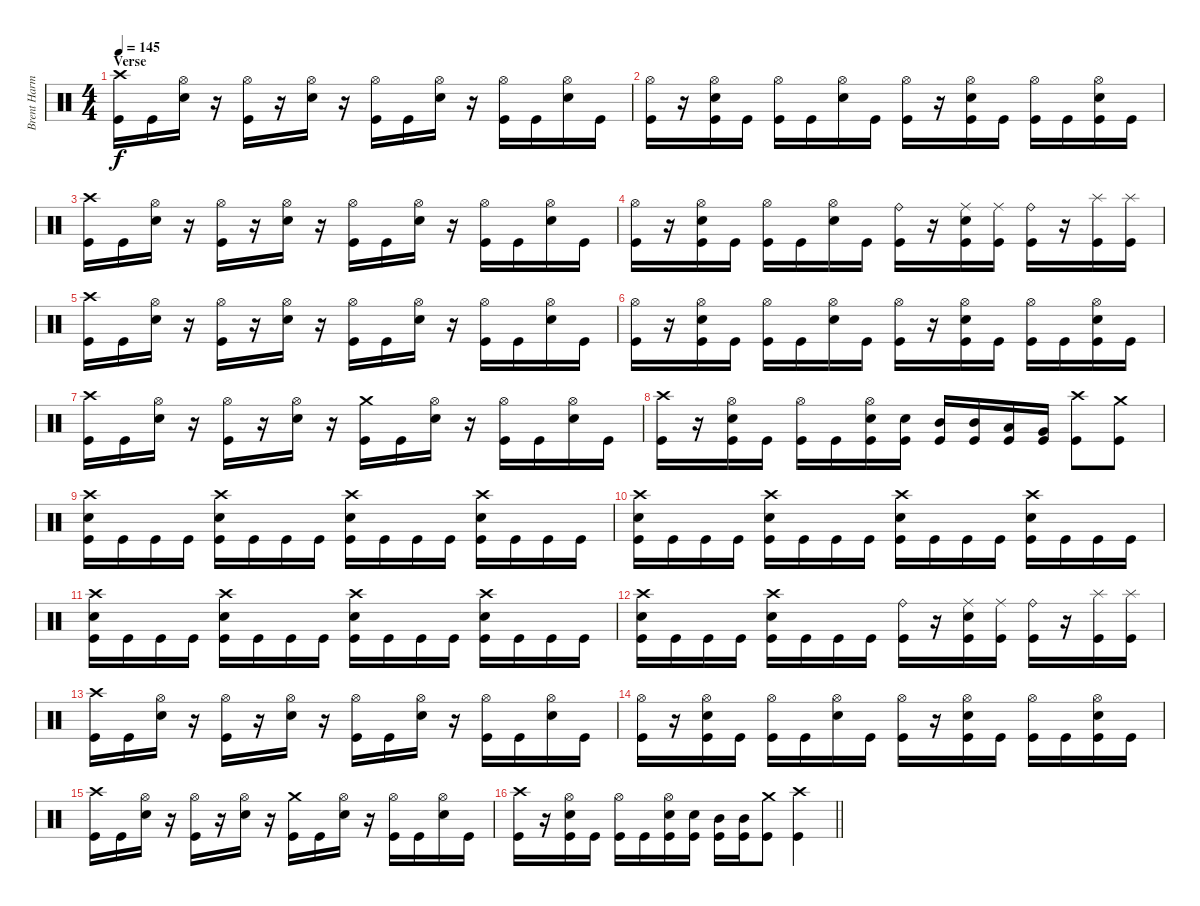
\track ("Brent Harman" "Brent Harm") {instrument percussion}
\staff {score}
\articulation defaults
\ts (4 4)
\section ("" "Verse")
\tempo 145
\clef neutral
\ks c
("Crash high (hit)" "Kick (hit)").16{dy f} "Kick (hit)".16 ("Hi-Hat (open)" "Snare (hit) 2").16 r.16 ("Hi-Hat (open)" "Kick (hit)").16 r.16 ("Hi-Hat (open)" "Snare (hit) 2").16 r.16 ("Hi-Hat (open)" "Kick (hit)").16 "Kick (hit)".16 ("Hi-Hat (open)" "Snare (hit) 2").16 r.16 ("Hi-Hat (open)" "Kick (hit)").16 "Kick (hit)".16 ("Hi-Hat (open)" "Snare (hit) 2").16 "Kick (hit)".16 |
("Hi-Hat (open)" "Kick (hit)").16 r.16 ("Hi-Hat (open)" "Snare (hit) 2" "Kick (hit)").16 "Kick (hit)".16 ("Hi-Hat (open)" "Kick (hit)").16 "Kick (hit)".16 ("Hi-Hat (open)" "Snare (hit) 2").16 "Kick (hit)".16 ("Hi-Hat (open)" "Kick (hit)").16 r.16 ("Hi-Hat (open)" "Snare (hit) 2" "Kick (hit)").16 "Kick (hit)".16 ("Hi-Hat (open)" "Kick (hit)").16 "Kick (hit)".16 ("Hi-Hat (open)" "Snare (hit) 2" "Kick (hit)").16 "Kick (hit)".16 |
("Crash high (hit)" "Kick (hit)").16 "Kick (hit)".16 ("Hi-Hat (open)" "Snare (hit) 2").16 r.16 ("Hi-Hat (open)" "Kick (hit)").16 r.16 ("Hi-Hat (open)" "Snare (hit) 2").16 r.16 ("Hi-Hat (open)" "Kick (hit)").16 "Kick (hit)".16 ("Hi-Hat (open)" "Snare (hit) 2").16 r.16 ("Hi-Hat (open)" "Kick (hit)").16 "Kick (hit)".16 ("Hi-Hat (open)" "Snare (hit) 2").16 "Kick (hit)".16 |
("Hi-Hat (open)" "Kick (hit)").16 r.16 ("Hi-Hat (open)" "Snare (hit) 2" "Kick (hit)").16 "Kick (hit)".16 ("Hi-Hat (open)" "Kick (hit)").16 "Kick (hit)".16 ("Hi-Hat (open)" "Snare (hit) 2").16 "Kick (hit)".16 ("Ride (bell)" "Kick (hit)").16 r.16 ("Ride (middle)" "Snare (hit) 2" "Kick (hit)").16 ("Ride (middle)" "Kick (hit)").16 ("Ride (bell)" "Kick (hit)").16 r.16 ("Splash (hit)" "Kick (hit)").16 ("Splash (hit)" "Kick (hit)").16 |
("Crash high (hit)" "Kick (hit)").16 "Kick (hit)".16 ("Hi-Hat (open)" "Snare (hit) 2").16 r.16 ("Hi-Hat (open)" "Kick (hit)").16 r.16 ("Hi-Hat (open)" "Snare (hit) 2").16 r.16 ("Hi-Hat (open)" "Kick (hit)").16 "Kick (hit)".16 ("Hi-Hat (open)" "Snare (hit) 2").16 r.16 ("Hi-Hat (open)" "Kick (hit)").16 "Kick (hit)".16 ("Hi-Hat (open)" "Snare (hit) 2").16 "Kick (hit)".16 |
("Hi-Hat (open)" "Kick (hit)").16 r.16 ("Hi-Hat (open)" "Snare (hit) 2" "Kick (hit)").16 "Kick (hit)".16 ("Hi-Hat (open)" "Kick (hit)").16 "Kick (hit)".16 ("Hi-Hat (open)" "Snare (hit) 2").16 "Kick (hit)".16 ("Hi-Hat (open)" "Kick (hit)").16 r.16 ("Hi-Hat (open)" "Snare (hit) 2" "Kick (hit)").16 "Kick (hit)".16 ("Hi-Hat (open)" "Kick (hit)").16 "Kick (hit)".16 ("Hi-Hat (open)" "Snare (hit) 2" "Kick (hit)").16 "Kick (hit)".16 |
("Crash high (hit)" "Kick (hit)").16 "Kick (hit)".16 ("Hi-Hat (open)" "Snare (hit) 2").16 r.16 ("Hi-Hat (open)" "Kick (hit)").16 r.16 ("Hi-Hat (open)" "Snare (hit) 2").16 r.16 ("Crash medium (hit)" "Kick (hit)").16 "Kick (hit)".16 ("Hi-Hat (open)" "Snare (hit) 2").16 r.16 ("Hi-Hat (open)" "Kick (hit)").16 "Kick (hit)".16 ("Hi-Hat (open)" "Snare (hit) 2").16 "Kick (hit)".16 |
("Crash high (hit)" "Kick (hit)").16 r.16 ("Hi-Hat (open)" "Snare (hit) 2" "Kick (hit)").16 "Kick (hit)".16 ("Hi-Hat (open)" "Kick (hit)").16 "Kick (hit)".16 ("Hi-Hat (open)" "Snare (hit) 2" "Kick (hit)").16 ("Snare (hit) 2" "Kick (hit)").16 ("Mid Tom (hit)" "Kick (hit)").16 ("Mid Tom (hit)" "Kick (hit)").16 ("Low Tom (hit)" "Kick (hit)").16 ("Very Low Tom (hit)" "Kick (hit)").16 ("Crash high (hit)" "Kick (hit)").8 ("Crash medium (hit)" "Kick (hit)").8 |
("Crash high (hit)" "Snare (hit) 2" "Kick (hit)").16 "Kick (hit)".16 "Kick (hit)".16 "Kick (hit)".16 ("Crash high (hit)" "Snare (hit) 2" "Kick (hit)").16 "Kick (hit)".16 "Kick (hit)".16 "Kick (hit)".16 ("Crash high (hit)" "Snare (hit) 2" "Kick (hit)").16 "Kick (hit)".16 "Kick (hit)".16 "Kick (hit)".16 ("Crash high (hit)" "Snare (hit) 2" "Kick (hit)").16 "Kick (hit)".16 "Kick (hit)".16 "Kick (hit)".16 |
("Crash high (hit)" "Snare (hit) 2" "Kick (hit)").16 "Kick (hit)".16 "Kick (hit)".16 "Kick (hit)".16 ("Crash high (hit)" "Snare (hit) 2" "Kick (hit)").16 "Kick (hit)".16 "Kick (hit)".16 "Kick (hit)".16 ("Crash high (hit)" "Snare (hit) 2" "Kick (hit)").16 "Kick (hit)".16 "Kick (hit)".16 "Kick (hit)".16 ("Crash high (hit)" "Snare (hit) 2" "Kick (hit)").16 "Kick (hit)".16 "Kick (hit)".16 "Kick (hit)".16 |
("Crash high (hit)" "Snare (hit) 2" "Kick (hit)").16 "Kick (hit)".16 "Kick (hit)".16 "Kick (hit)".16 ("Crash high (hit)" "Snare (hit) 2" "Kick (hit)").16 "Kick (hit)".16 "Kick (hit)".16 "Kick (hit)".16 ("Crash high (hit)" "Snare (hit) 2" "Kick (hit)").16 "Kick (hit)".16 "Kick (hit)".16 "Kick (hit)".16 ("Crash high (hit)" "Snare (hit) 2" "Kick (hit)").16 "Kick (hit)".16 "Kick (hit)".16 "Kick (hit)".16 |
("Crash high (hit)" "Snare (hit) 2" "Kick (hit)").16 "Kick (hit)".16 "Kick (hit)".16 "Kick (hit)".16 ("Crash high (hit)" "Snare (hit) 2" "Kick (hit)").16 "Kick (hit)".16 "Kick (hit)".16 "Kick (hit)".16 ("Ride (bell)" "Kick (hit)").16 r.16 ("Ride (middle)" "Snare (hit) 2" "Kick (hit)").16 ("Ride (middle)" "Kick (hit)").16 ("Ride (bell)" "Kick (hit)").16 r.16 ("Splash (hit)" "Kick (hit)").16 ("Splash (hit)" "Kick (hit)").16 |
("Crash high (hit)" "Kick (hit)").16 "Kick (hit)".16 ("Hi-Hat (open)" "Snare (hit) 2").16 r.16 ("Hi-Hat (open)" "Kick (hit)").16 r.16 ("Hi-Hat (open)" "Snare (hit) 2").16 r.16 ("Hi-Hat (open)" "Kick (hit)").16 "Kick (hit)".16 ("Hi-Hat (open)" "Snare (hit) 2").16 r.16 ("Hi-Hat (open)" "Kick (hit)").16 "Kick (hit)".16 ("Hi-Hat (open)" "Snare (hit) 2").16 "Kick (hit)".16 |
("Hi-Hat (open)" "Kick (hit)").16 r.16 ("Hi-Hat (open)" "Snare (hit) 2" "Kick (hit)").16 "Kick (hit)".16 ("Hi-Hat (open)" "Kick (hit)").16 "Kick (hit)".16 ("Hi-Hat (open)" "Snare (hit) 2").16 "Kick (hit)".16 ("Hi-Hat (open)" "Kick (hit)").16 r.16 ("Hi-Hat (open)" "Snare (hit) 2" "Kick (hit)").16 "Kick (hit)".16 ("Hi-Hat (open)" "Kick (hit)").16 "Kick (hit)".16 ("Hi-Hat (open)" "Snare (hit) 2" "Kick (hit)").16 "Kick (hit)".16 |
("Crash high (hit)" "Kick (hit)").16 "Kick (hit)".16 ("Hi-Hat (open)" "Snare (hit) 2").16 r.16 ("Hi-Hat (open)" "Kick (hit)").16 r.16 ("Hi-Hat (open)" "Snare (hit) 2").16 r.16 ("Crash medium (hit)" "Kick (hit)").16 "Kick (hit)".16 ("Hi-Hat (open)" "Snare (hit) 2").16 r.16 ("Hi-Hat (open)" "Kick (hit)").16 "Kick (hit)".16 ("Hi-Hat (open)" "Snare (hit) 2").16 "Kick (hit)".16 |
\barLineRight lightlight
("Crash high (hit)" "Kick (hit)").16 r.16 ("Hi-Hat (open)" "Snare (hit) 2" "Kick (hit)").16 "Kick (hit)".16 ("Hi-Hat (open)" "Kick (hit)").16 "Kick (hit)".16 ("Hi-Hat (open)" "Snare (hit) 2" "Kick (hit)").16 ("Snare (hit) 2" "Kick (hit)").16 ("Mid Tom (hit)" "Kick (hit)").16 ("Mid Tom (hit)" "Kick (hit)").16 ("Crash medium (hit)" "Kick (hit)").8 ("Crash high (hit)" "Kick (hit)").4
